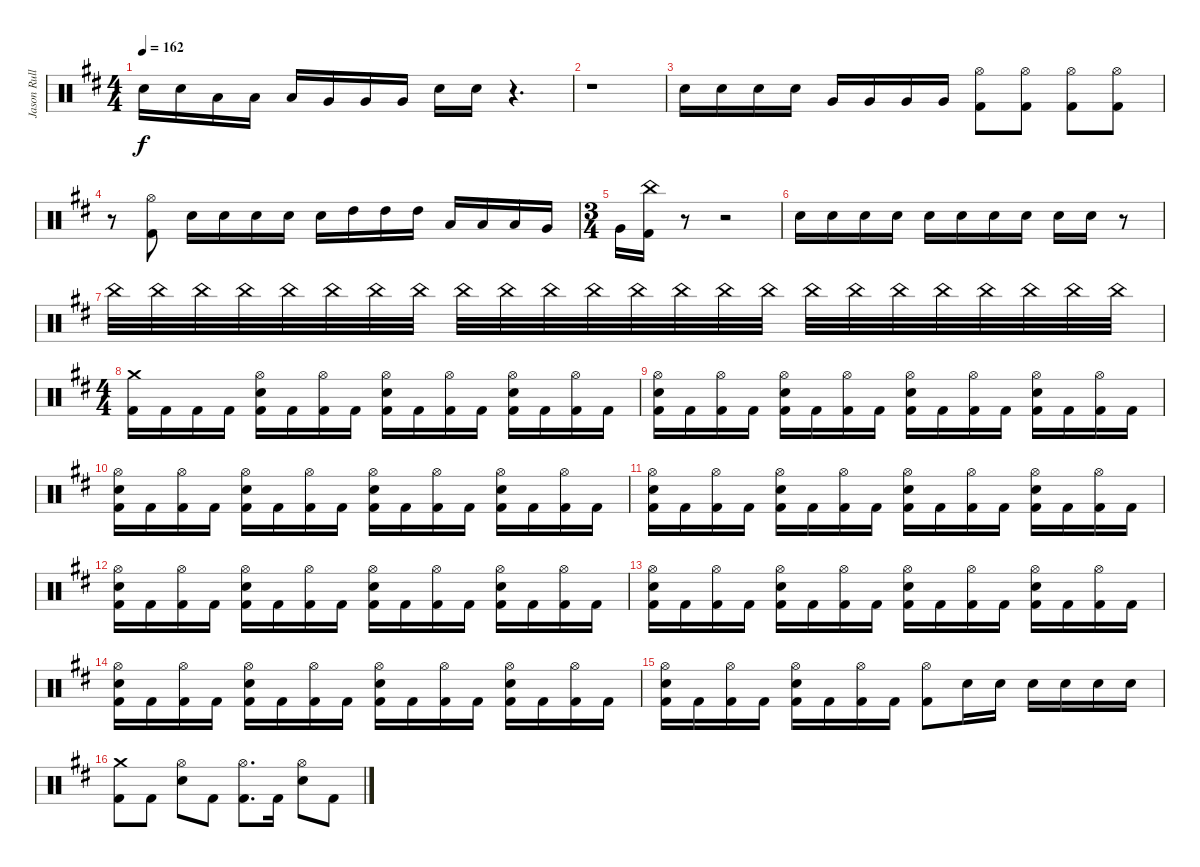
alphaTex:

\track ("Jason Rullo" "Jason Rull") {instrument percussion}
\staff {score}
\articulation defaults
\ts (4 4)
\tempo 162
\clef neutral
\ks bminor "Electric Snare (hit)".16{dy f} "Electric Snare (hit)".16 "Low Tom (hit)".16 "Low Tom (hit)".16 "Low Tom (hit)".16 "Very Low Tom (hit)".16 "Very Low Tom (hit)".16 "Very Low Tom (hit)".16 "Electric Snare (hit)".16 "Electric Snare (hit)".16
r.4{d} |
r.1 |
"Electric Snare (hit)".16 "Electric Snare (hit)".16 "Electric Snare (hit)".16 "Electric Snare (hit)".16 "Very Low Tom (hit)".16 "Very Low Tom (hit)".16 "Very Low Tom (hit)".16 "Very Low Tom (hit)".16 ("Hi-Hat (open)" "Kick (hit) 2").8 ("Kick (hit) 2" "Hi-Hat (open)").8 ("Hi-Hat (open)" "Kick (hit) 2").8 ("Hi-Hat (open)" "Kick (hit) 2").8 |
r.8 ("Hi-Hat (open)" "Kick (hit) 2").8 "Electric Snare (hit)".16 "Electric Snare (hit)".16 "Electric Snare (hit)".16 "Electric Snare (hit)".16 "Electric Snare (hit)".16 "High Tom (hit)".16 "High Tom (hit)".16 "High Tom (hit)".16 "Low Tom (hit)".16 "Low Tom (hit)".16 "Low Tom (hit)".16 "Very Low Tom (hit)".16 |
\ts (3 4)
"Very Low Tom (hit)".16 ("China (hit)" "Kick (hit) 2").16 r.8 r.2 |
"Electric Snare (hit)".16 "Electric Snare (hit)".16 "Electric Snare (hit)".16 "Electric Snare (hit)".16 "Electric Snare (hit)".16 "Electric Snare (hit)".16 "Electric Snare (hit)".16 "Electric Snare (hit)".16 "Electric Snare (hit)".16 "Electric Snare (hit)".16 r.8 |
"China (hit)".32{volume 0} "China (hit)".32{volume 0} "China (hit)".32{volume 1} "China (hit)".32{volume 2} "China (hit)".32{volume 2} "China (hit)".32{volume 3} "China (hit)".32{volume 3} "China (hit)".32{volume 4} "China (hit)".32{volume 4} "China (hit)".32{volume 5} "China (hit)".32{volume 5} "China (hit)".32{volume 6} "China (hit)".32{volume 6} "China (hit)".32{volume 7} "China (hit)".32{volume 7} "China (hit)".32{volume 8} "China (hit)".32{volume 8} "China (hit)".32{volume 9} "China (hit)".32{volume 9} "China (hit)".32{volume 10} "China (hit)".32{volume 10} "China (hit)".32{volume 11} "China (hit)".32{volume 12} "China (hit)".32{volume 12} |
\ts (4 4)
("Crash medium (hit)" "Kick (hit) 2").16{volume 16} "Kick (hit) 2".16 "Kick (hit) 2".16 "Kick (hit) 2".16 ("Hi-Hat (open)" "Electric Snare (hit)" "Kick (hit) 2").16 "Kick (hit) 2".16 ("Hi-Hat (open)" "Kick (hit) 2").16 "Kick (hit) 2".16 ("Hi-Hat (open)" "Electric Snare (hit)" "Kick (hit) 2").16 "Kick (hit) 2".16 ("Hi-Hat (open)" "Kick (hit) 2").16 "Kick (hit) 2".16 ("Hi-Hat (open)" "Electric Snare (hit)" "Kick (hit) 2").16 "Kick (hit) 2".16 ("Hi-Hat (open)" "Kick (hit) 2").16 "Kick (hit) 2".16 |
("Electric Snare (hit)" "Kick (hit) 2" "Hi-Hat (open)").16 "Kick (hit) 2".16 ("Kick (hit) 2" "Hi-Hat (open)").16 "Kick (hit) 2".16 ("Electric Snare (hit)" "Kick (hit) 2" "Hi-Hat (open)").16 "Kick (hit) 2".16 ("Kick (hit) 2" "Hi-Hat (open)").16 "Kick (hit) 2".16 ("Electric Snare (hit)" "Kick (hit) 2" "Hi-Hat (open)").16 "Kick (hit) 2".16 ("Kick (hit) 2" "Hi-Hat (open)").16 "Kick (hit) 2".16 ("Electric Snare (hit)" "Kick (hit) 2" "Hi-Hat (open)").16 "Kick (hit) 2".16 ("Kick (hit) 2" "Hi-Hat (open)").16 "Kick (hit) 2".16 |
("Electric Snare (hit)" "Kick (hit) 2" "Hi-Hat (open)").16 "Kick (hit) 2".16 ("Kick (hit) 2" "Hi-Hat (open)").16 "Kick (hit) 2".16 ("Electric Snare (hit)" "Kick (hit) 2" "Hi-Hat (open)").16 "Kick (hit) 2".16 ("Kick (hit) 2" "Hi-Hat (open)").16 "Kick (hit) 2".16 ("Electric Snare (hit)" "Kick (hit) 2" "Hi-Hat (open)").16 "Kick (hit) 2".16 ("Kick (hit) 2" "Hi-Hat (open)").16 "Kick (hit) 2".16 ("Electric Snare (hit)" "Kick (hit) 2" "Hi-Hat (open)").16 "Kick (hit) 2".16 ("Kick (hit) 2" "Hi-Hat (open)").16 "Kick (hit) 2".16 |
("Electric Snare (hit)" "Kick (hit) 2" "Hi-Hat (open)").16 "Kick (hit) 2".16 ("Kick (hit) 2" "Hi-Hat (open)").16 "Kick (hit) 2".16 ("Electric Snare (hit)" "Kick (hit) 2" "Hi-Hat (open)").16 "Kick (hit) 2".16 ("Kick (hit) 2" "Hi-Hat (open)").16 "Kick (hit) 2".16 ("Electric Snare (hit)" "Kick (hit) 2" "Hi-Hat (open)").16 "Kick (hit) 2".16 ("Kick (hit) 2" "Hi-Hat (open)").16 "Kick (hit) 2".16 ("Electric Snare (hit)" "Kick (hit) 2" "Hi-Hat (open)").16 "Kick (hit) 2".16 ("Kick (hit) 2" "Hi-Hat (open)").16 "Kick (hit) 2".16 |
("Electric Snare (hit)" "Kick (hit) 2" "Hi-Hat (open)").16 "Kick (hit) 2".16 ("Kick (hit) 2" "Hi-Hat (open)").16 "Kick (hit) 2".16 ("Electric Snare (hit)" "Kick (hit) 2" "Hi-Hat (open)").16 "Kick (hit) 2".16 ("Kick (hit) 2" "Hi-Hat (open)").16 "Kick (hit) 2".16 ("Electric Snare (hit)" "Kick (hit) 2" "Hi-Hat (open)").16 "Kick (hit) 2".16 ("Kick (hit) 2" "Hi-Hat (open)").16 "Kick (hit) 2".16 ("Electric Snare (hit)" "Kick (hit) 2" "Hi-Hat (open)").16 "Kick (hit) 2".16 ("Kick (hit) 2" "Hi-Hat (open)").16 "Kick (hit) 2".16 |
("Electric Snare (hit)" "Kick (hit) 2" "Hi-Hat (open)").16 "Kick (hit) 2".16 ("Kick (hit) 2" "Hi-Hat (open)").16 "Kick (hit) 2".16 ("Electric Snare (hit)" "Kick (hit) 2" "Hi-Hat (open)").16 "Kick (hit) 2".16 ("Kick (hit) 2" "Hi-Hat (open)").16 "Kick (hit) 2".16 ("Electric Snare (hit)" "Kick (hit) 2" "Hi-Hat (open)").16 "Kick (hit) 2".16 ("Kick (hit) 2" "Hi-Hat (open)").16 "Kick (hit) 2".16 ("Electric Snare (hit)" "Kick (hit) 2" "Hi-Hat (open)").16 "Kick (hit) 2".16 ("Kick (hit) 2" "Hi-Hat (open)").16 "Kick (hit) 2".16 |
("Electric Snare (hit)" "Kick (hit) 2" "Hi-Hat (open)").16 "Kick (hit) 2".16 ("Kick (hit) 2" "Hi-Hat (open)").16 "Kick (hit) 2".16 ("Electric Snare (hit)" "Kick (hit) 2" "Hi-Hat (open)").16 "Kick (hit) 2".16 ("Kick (hit) 2" "Hi-Hat (open)").16 "Kick (hit) 2".16 ("Electric Snare (hit)" "Kick (hit) 2" "Hi-Hat (open)").16 "Kick (hit) 2".16 ("Kick (hit) 2" "Hi-Hat (open)").16 "Kick (hit) 2".16 ("Electric Snare (hit)" "Kick (hit) 2" "Hi-Hat (open)").16 "Kick (hit) 2".16 ("Kick (hit) 2" "Hi-Hat (open)").16 "Kick (hit) 2".16 |
("Electric Snare (hit)" "Kick (hit) 2" "Hi-Hat (open)").16 "Kick (hit) 2".16 ("Kick (hit) 2" "Hi-Hat (open)").16 "Kick (hit) 2".16 ("Electric Snare (hit)" "Kick (hit) 2" "Hi-Hat (open)").16 "Kick (hit) 2".16 ("Kick (hit) 2" "Hi-Hat (open)").16 "Kick (hit) 2".16 ("Hi-Hat (open)" "Kick (hit) 2").8 "Electric Snare (hit)".16 "Electric Snare (hit)".16 "Electric Snare (hit)".16 "Electric Snare (hit)".16 "Electric Snare (hit)".16 "Electric Snare (hit)".16 |
("Crash medium (hit)" "Kick (hit) 2").8 "Kick (hit) 2".8 ("Hi-Hat (open)" "Electric Snare (hit)").8 "Kick (hit) 2".8 ("Hi-Hat (open)" "Kick (hit) 2").8{d} "Kick (hit) 2".16 ("Hi-Hat (open)" "Electric Snare (hit)").8 "Kick (hit) 2".8
